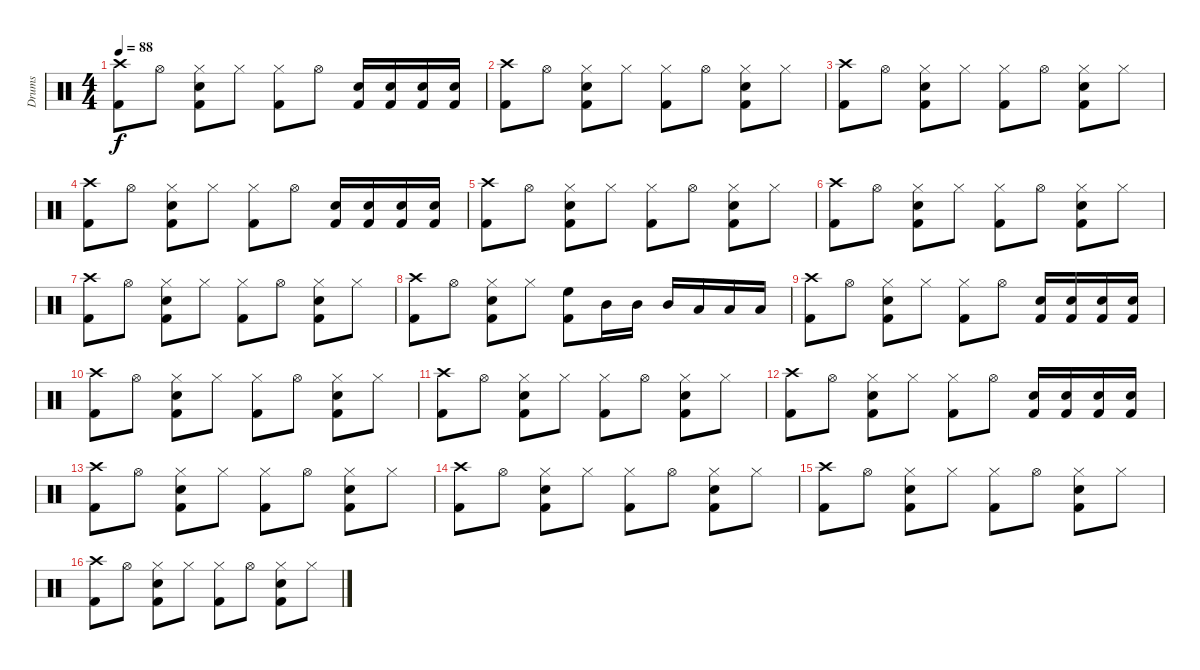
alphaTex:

\track ("Drums" "Drums") {instrument percussion}
\staff {score}
\articulation defaults
\ts (4 4)
\tempo 88
\clef neutral
\ks c
("Crash high (hit)" "Kick (hit) 2").8{dy f} "Hi-Hat (open)".8 ("Hi-Hat (closed)" "Snare (hit) 2" "Kick (hit) 2").8 "Hi-Hat (closed)".8 ("Hi-Hat (closed)" "Kick (hit) 2").8 "Hi-Hat (open)".8 ("Snare (hit) 2" "Kick (hit) 2").16 ("Snare (hit) 2" "Kick (hit) 2").16 ("Snare (hit) 2" "Kick (hit) 2").16 ("Snare (hit) 2" "Kick (hit) 2").16 |
("Crash high (hit)" "Kick (hit) 2").8 "Hi-Hat (open)".8 ("Hi-Hat (closed)" "Snare (hit) 2" "Kick (hit) 2").8 "Hi-Hat (closed)".8 ("Hi-Hat (closed)" "Kick (hit) 2").8 "Hi-Hat (open)".8 ("Hi-Hat (closed)" "Snare (hit) 2" "Kick (hit) 2").8 "Hi-Hat (closed)".8 |
("Crash high (hit)" "Kick (hit) 2").8 "Hi-Hat (open)".8 ("Hi-Hat (closed)" "Snare (hit) 2" "Kick (hit) 2").8 "Hi-Hat (closed)".8 ("Hi-Hat (closed)" "Kick (hit) 2").8 "Hi-Hat (open)".8 ("Hi-Hat (closed)" "Snare (hit) 2" "Kick (hit) 2").8 "Hi-Hat (closed)".8 |
("Crash high (hit)" "Kick (hit) 2").8 "Hi-Hat (open)".8 ("Hi-Hat (closed)" "Snare (hit) 2" "Kick (hit) 2").8 "Hi-Hat (closed)".8 ("Hi-Hat (closed)" "Kick (hit) 2").8 "Hi-Hat (open)".8 ("Snare (hit) 2" "Kick (hit) 2").16 ("Snare (hit) 2" "Kick (hit) 2").16 ("Snare (hit) 2" "Kick (hit) 2").16 ("Snare (hit) 2" "Kick (hit) 2").16 |
("Crash high (hit)" "Kick (hit) 2").8 "Hi-Hat (open)".8 ("Hi-Hat (closed)" "Snare (hit) 2" "Kick (hit) 2").8 "Hi-Hat (closed)".8 ("Hi-Hat (closed)" "Kick (hit) 2").8 "Hi-Hat (open)".8 ("Hi-Hat (closed)" "Snare (hit) 2" "Kick (hit) 2").8 "Hi-Hat (closed)".8 |
("Crash high (hit)" "Kick (hit) 2").8 "Hi-Hat (open)".8 ("Hi-Hat (closed)" "Snare (hit) 2" "Kick (hit) 2").8 "Hi-Hat (closed)".8 ("Hi-Hat (closed)" "Kick (hit) 2").8 "Hi-Hat (open)".8 ("Hi-Hat (closed)" "Snare (hit) 2" "Kick (hit) 2").8 "Hi-Hat (closed)".8 |
("Crash high (hit)" "Kick (hit) 2").8 "Hi-Hat (open)".8 ("Hi-Hat (closed)" "Snare (hit) 2" "Kick (hit) 2").8 "Hi-Hat (closed)".8 ("Hi-Hat (closed)" "Kick (hit) 2").8 "Hi-Hat (open)".8 ("Hi-Hat (closed)" "Snare (hit) 2" "Kick (hit) 2").8 "Hi-Hat (closed)".8 |
("Crash high (hit)" "Kick (hit) 2").8 "Hi-Hat (open)".8 ("Hi-Hat (closed)" "Snare (hit) 2" "Kick (hit) 2").8 "Hi-Hat (closed)".8 ("High Floor Tom (hit)" "Kick (hit) 2").8 "Mid Tom (hit)".16 "Mid Tom (hit)".16 "Mid Tom (hit)".16 "Low Tom (hit)".16 "Low Tom (hit)".16 "Low Tom (hit)".16 |
("Crash high (hit)" "Kick (hit) 2").8 "Hi-Hat (open)".8 ("Hi-Hat (closed)" "Snare (hit) 2" "Kick (hit) 2").8 "Hi-Hat (closed)".8 ("Hi-Hat (closed)" "Kick (hit) 2").8 "Hi-Hat (open)".8 ("Snare (hit) 2" "Kick (hit) 2").16 ("Snare (hit) 2" "Kick (hit) 2").16 ("Snare (hit) 2" "Kick (hit) 2").16 ("Snare (hit) 2" "Kick (hit) 2").16 |
("Crash high (hit)" "Kick (hit) 2").8 "Hi-Hat (open)".8 ("Hi-Hat (closed)" "Snare (hit) 2" "Kick (hit) 2").8 "Hi-Hat (closed)".8 ("Hi-Hat (closed)" "Kick (hit) 2").8 "Hi-Hat (open)".8 ("Hi-Hat (closed)" "Snare (hit) 2" "Kick (hit) 2").8 "Hi-Hat (closed)".8 |
("Crash high (hit)" "Kick (hit) 2").8 "Hi-Hat (open)".8 ("Hi-Hat (closed)" "Snare (hit) 2" "Kick (hit) 2").8 "Hi-Hat (closed)".8 ("Hi-Hat (closed)" "Kick (hit) 2").8 "Hi-Hat (open)".8 ("Hi-Hat (closed)" "Snare (hit) 2" "Kick (hit) 2").8 "Hi-Hat (closed)".8 |
("Crash high (hit)" "Kick (hit) 2").8 "Hi-Hat (open)".8 ("Hi-Hat (closed)" "Snare (hit) 2" "Kick (hit) 2").8 "Hi-Hat (closed)".8 ("Hi-Hat (closed)" "Kick (hit) 2").8 "Hi-Hat (open)".8 ("Snare (hit) 2" "Kick (hit) 2").16 ("Snare (hit) 2" "Kick (hit) 2").16 ("Snare (hit) 2" "Kick (hit) 2").16 ("Snare (hit) 2" "Kick (hit) 2").16 |
("Crash high (hit)" "Kick (hit) 2").8 "Hi-Hat (open)".8 ("Hi-Hat (closed)" "Snare (hit) 2" "Kick (hit) 2").8 "Hi-Hat (closed)".8 ("Hi-Hat (closed)" "Kick (hit) 2").8 "Hi-Hat (open)".8 ("Hi-Hat (closed)" "Snare (hit) 2" "Kick (hit) 2").8 "Hi-Hat (closed)".8 |
("Crash high (hit)" "Kick (hit) 2").8 "Hi-Hat (open)".8 ("Hi-Hat (closed)" "Snare (hit) 2" "Kick (hit) 2").8 "Hi-Hat (closed)".8 ("Hi-Hat (closed)" "Kick (hit) 2").8 "Hi-Hat (open)".8 ("Hi-Hat (closed)" "Snare (hit) 2" "Kick (hit) 2").8 "Hi-Hat (closed)".8 |
("Crash high (hit)" "Kick (hit) 2").8 "Hi-Hat (open)".8 ("Hi-Hat (closed)" "Snare (hit) 2" "Kick (hit) 2").8 "Hi-Hat (closed)".8 ("Hi-Hat (closed)" "Kick (hit) 2").8 "Hi-Hat (open)".8 ("Hi-Hat (closed)" "Snare (hit) 2" "Kick (hit) 2").8 "Hi-Hat (closed)".8 |
("Crash high (hit)" "Kick (hit) 2").8 "Hi-Hat (open)".8 ("Hi-Hat (closed)" "Snare (hit) 2" "Kick (hit) 2").8 "Hi-Hat (closed)".8 ("Hi-Hat (closed)" "Kick (hit) 2").8 "Hi-Hat (open)".8 ("Hi-Hat (closed)" "Snare (hit) 2" "Kick (hit) 2").8 "Hi-Hat (closed)".8
